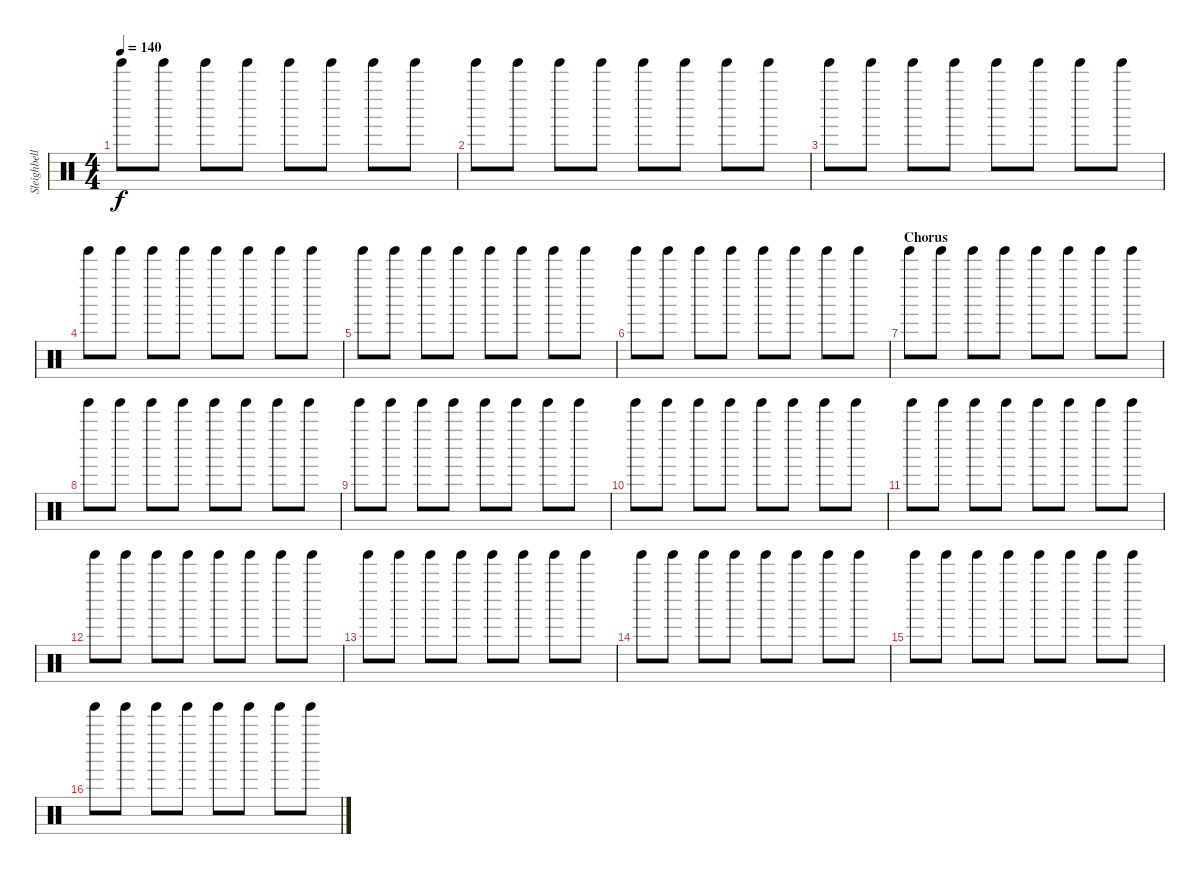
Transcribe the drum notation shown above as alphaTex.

\track ("Sleighbells" "Sleighbell") {instrument percussion}
\staff {score}
\articulation defaults
\ts (4 4)
\tempo 140
\clef neutral
\ks c "Tinkle Bell (hit)".8{dy f} "Tinkle Bell (hit)".8 "Tinkle Bell (hit)".8 "Tinkle Bell (hit)".8 "Tinkle Bell (hit)".8 "Tinkle Bell (hit)".8 "Tinkle Bell (hit)".8 "Tinkle Bell (hit)".8
|
"Tinkle Bell (hit)".8 "Tinkle Bell (hit)".8 "Tinkle Bell (hit)".8 "Tinkle Bell (hit)".8 "Tinkle Bell (hit)".8 "Tinkle Bell (hit)".8 "Tinkle Bell (hit)".8 "Tinkle Bell (hit)".8 |
"Tinkle Bell (hit)".8 "Tinkle Bell (hit)".8 "Tinkle Bell (hit)".8 "Tinkle Bell (hit)".8 "Tinkle Bell (hit)".8 "Tinkle Bell (hit)".8 "Tinkle Bell (hit)".8 "Tinkle Bell (hit)".8 |
"Tinkle Bell (hit)".8 "Tinkle Bell (hit)".8 "Tinkle Bell (hit)".8 "Tinkle Bell (hit)".8 "Tinkle Bell (hit)".8 "Tinkle Bell (hit)".8 "Tinkle Bell (hit)".8 "Tinkle Bell (hit)".8 |
"Tinkle Bell (hit)".8 "Tinkle Bell (hit)".8 "Tinkle Bell (hit)".8 "Tinkle Bell (hit)".8 "Tinkle Bell (hit)".8 "Tinkle Bell (hit)".8 "Tinkle Bell (hit)".8 "Tinkle Bell (hit)".8 |
"Tinkle Bell (hit)".8 "Tinkle Bell (hit)".8 "Tinkle Bell (hit)".8 "Tinkle Bell (hit)".8 "Tinkle Bell (hit)".8 "Tinkle Bell (hit)".8 "Tinkle Bell (hit)".8 "Tinkle Bell (hit)".8 |
\section ("" "Chorus")
"Tinkle Bell (hit)".8 "Tinkle Bell (hit)".8 "Tinkle Bell (hit)".8 "Tinkle Bell (hit)".8 "Tinkle Bell (hit)".8 "Tinkle Bell (hit)".8 "Tinkle Bell (hit)".8 "Tinkle Bell (hit)".8 |
"Tinkle Bell (hit)".8 "Tinkle Bell (hit)".8 "Tinkle Bell (hit)".8 "Tinkle Bell (hit)".8 "Tinkle Bell (hit)".8 "Tinkle Bell (hit)".8 "Tinkle Bell (hit)".8 "Tinkle Bell (hit)".8 |
"Tinkle Bell (hit)".8 "Tinkle Bell (hit)".8 "Tinkle Bell (hit)".8 "Tinkle Bell (hit)".8 "Tinkle Bell (hit)".8 "Tinkle Bell (hit)".8 "Tinkle Bell (hit)".8 "Tinkle Bell (hit)".8 |
"Tinkle Bell (hit)".8 "Tinkle Bell (hit)".8 "Tinkle Bell (hit)".8 "Tinkle Bell (hit)".8 "Tinkle Bell (hit)".8 "Tinkle Bell (hit)".8 "Tinkle Bell (hit)".8 "Tinkle Bell (hit)".8 |
"Tinkle Bell (hit)".8 "Tinkle Bell (hit)".8 "Tinkle Bell (hit)".8 "Tinkle Bell (hit)".8 "Tinkle Bell (hit)".8 "Tinkle Bell (hit)".8 "Tinkle Bell (hit)".8 "Tinkle Bell (hit)".8 |
"Tinkle Bell (hit)".8 "Tinkle Bell (hit)".8 "Tinkle Bell (hit)".8 "Tinkle Bell (hit)".8 "Tinkle Bell (hit)".8 "Tinkle Bell (hit)".8 "Tinkle Bell (hit)".8 "Tinkle Bell (hit)".8 |
"Tinkle Bell (hit)".8 "Tinkle Bell (hit)".8 "Tinkle Bell (hit)".8 "Tinkle Bell (hit)".8 "Tinkle Bell (hit)".8 "Tinkle Bell (hit)".8 "Tinkle Bell (hit)".8 "Tinkle Bell (hit)".8 |
"Tinkle Bell (hit)".8 "Tinkle Bell (hit)".8 "Tinkle Bell (hit)".8 "Tinkle Bell (hit)".8 "Tinkle Bell (hit)".8 "Tinkle Bell (hit)".8 "Tinkle Bell (hit)".8 "Tinkle Bell (hit)".8 |
"Tinkle Bell (hit)".8 "Tinkle Bell (hit)".8 "Tinkle Bell (hit)".8 "Tinkle Bell (hit)".8 "Tinkle Bell (hit)".8 "Tinkle Bell (hit)".8 "Tinkle Bell (hit)".8 "Tinkle Bell (hit)".8 |
"Tinkle Bell (hit)".8 "Tinkle Bell (hit)".8 "Tinkle Bell (hit)".8 "Tinkle Bell (hit)".8 "Tinkle Bell (hit)".8 "Tinkle Bell (hit)".8 "Tinkle Bell (hit)".8 "Tinkle Bell (hit)".8
